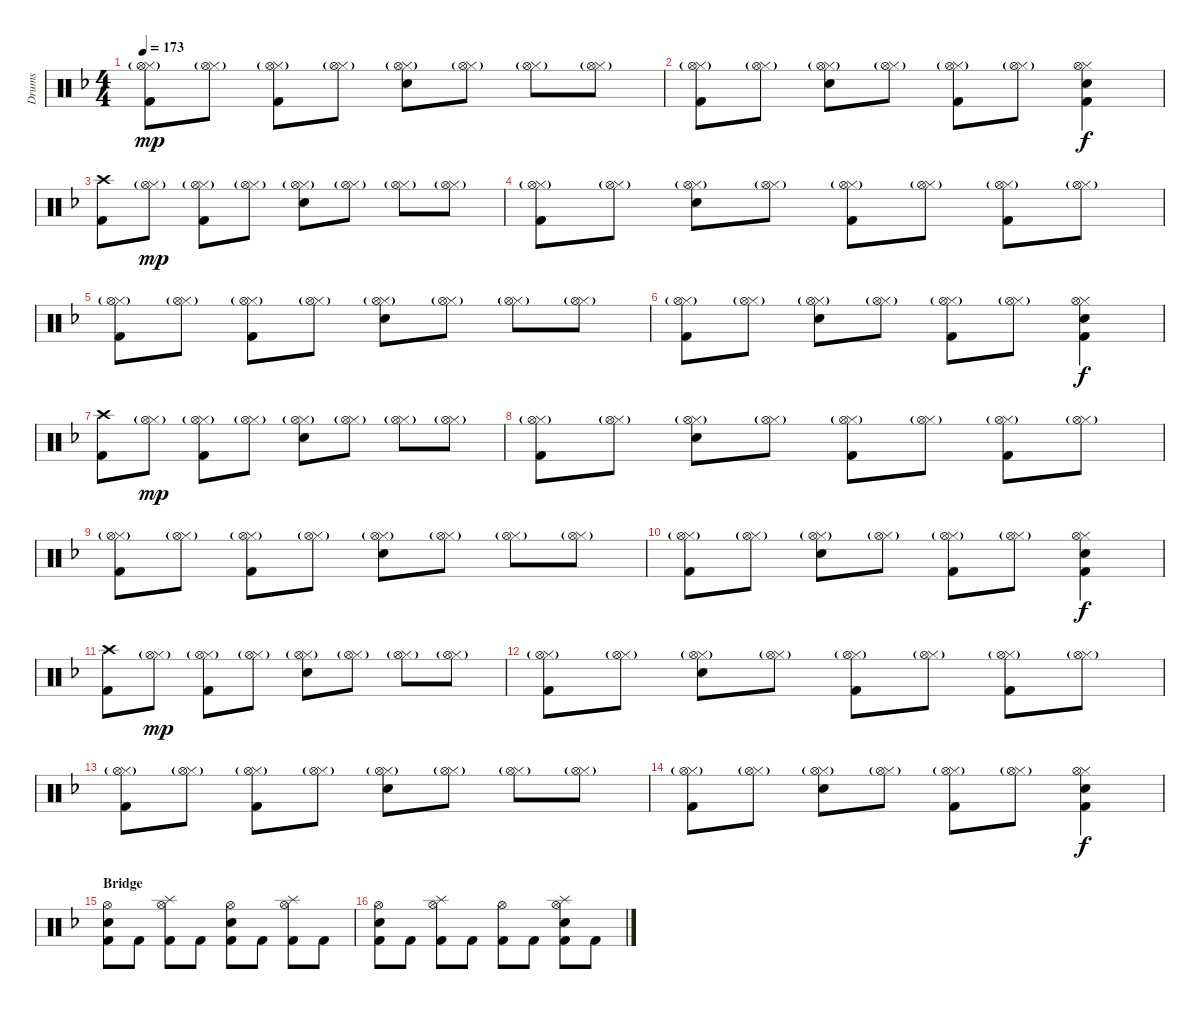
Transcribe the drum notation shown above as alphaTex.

\track ("Drums" "Drums") {instrument percussion}
\staff {score}
\articulation defaults
\ts (4 4)
\tempo 173
\clef neutral
\ks dminor
("Hi-Hat (closed)"{g} "Hi-Hat (open)"{g} "Kick (hit) 2").8{dy mp} ("Hi-Hat (closed)"{g} "Hi-Hat (open)"{g}).8 ("Hi-Hat (closed)"{g} "Hi-Hat (open)"{g} "Kick (hit) 2").8 ("Hi-Hat (closed)"{g} "Hi-Hat (open)"{g}).8 ("Hi-Hat (closed)"{g} "Hi-Hat (open)"{g} "Snare (hit) 2").8 ("Hi-Hat (closed)"{g} "Hi-Hat (open)"{g}).8 ("Hi-Hat (closed)"{g} "Hi-Hat (open)"{g}).8 ("Hi-Hat (closed)"{g} "Hi-Hat (open)"{g}).8 |
("Hi-Hat (closed)"{g} "Hi-Hat (open)"{g} "Kick (hit) 2").8 ("Hi-Hat (closed)"{g} "Hi-Hat (open)"{g}).8 ("Hi-Hat (closed)"{g} "Hi-Hat (open)"{g} "Snare (hit) 2").8 ("Hi-Hat (closed)"{g} "Hi-Hat (open)"{g}).8 ("Hi-Hat (closed)"{g} "Hi-Hat (open)"{g} "Kick (hit) 2").8 ("Hi-Hat (closed)"{g} "Hi-Hat (open)"{g}).8 ("Hi-Hat (closed)" "Hi-Hat (open)" "Snare (hit) 2" "Kick (hit) 2").4{dy f} |
("Crash high (hit)" "Kick (hit) 2").8 ("Hi-Hat (closed)"{g} "Hi-Hat (open)"{g}).8{dy mp} ("Hi-Hat (closed)"{g} "Hi-Hat (open)"{g} "Kick (hit) 2").8 ("Hi-Hat (closed)"{g} "Hi-Hat (open)"{g}).8 ("Hi-Hat (closed)"{g} "Hi-Hat (open)"{g} "Snare (hit) 2").8 ("Hi-Hat (closed)"{g} "Hi-Hat (open)"{g}).8 ("Hi-Hat (closed)"{g} "Hi-Hat (open)"{g}).8 ("Hi-Hat (closed)"{g} "Hi-Hat (open)"{g}).8 |
("Hi-Hat (closed)"{g} "Hi-Hat (open)"{g} "Kick (hit) 2").8 ("Hi-Hat (closed)"{g} "Hi-Hat (open)"{g}).8 ("Hi-Hat (closed)"{g} "Hi-Hat (open)"{g} "Snare (hit) 2").8 ("Hi-Hat (closed)"{g} "Hi-Hat (open)"{g}).8 ("Hi-Hat (closed)"{g} "Hi-Hat (open)"{g} "Kick (hit) 2").8 ("Hi-Hat (closed)"{g} "Hi-Hat (open)"{g}).8 ("Hi-Hat (closed)"{g} "Hi-Hat (open)"{g} "Kick (hit) 2").8 ("Hi-Hat (closed)"{g} "Hi-Hat (open)"{g}).8 |
("Hi-Hat (closed)"{g} "Hi-Hat (open)"{g} "Kick (hit) 2").8 ("Hi-Hat (closed)"{g} "Hi-Hat (open)"{g}).8 ("Hi-Hat (closed)"{g} "Hi-Hat (open)"{g} "Kick (hit) 2").8 ("Hi-Hat (closed)"{g} "Hi-Hat (open)"{g}).8 ("Hi-Hat (closed)"{g} "Hi-Hat (open)"{g} "Snare (hit) 2").8 ("Hi-Hat (closed)"{g} "Hi-Hat (open)"{g}).8 ("Hi-Hat (closed)"{g} "Hi-Hat (open)"{g}).8 ("Hi-Hat (closed)"{g} "Hi-Hat (open)"{g}).8 |
("Hi-Hat (closed)"{g} "Hi-Hat (open)"{g} "Kick (hit) 2").8 ("Hi-Hat (closed)"{g} "Hi-Hat (open)"{g}).8 ("Hi-Hat (closed)"{g} "Hi-Hat (open)"{g} "Snare (hit) 2").8 ("Hi-Hat (closed)"{g} "Hi-Hat (open)"{g}).8 ("Hi-Hat (closed)"{g} "Hi-Hat (open)"{g} "Kick (hit) 2").8 ("Hi-Hat (closed)"{g} "Hi-Hat (open)"{g}).8 ("Hi-Hat (closed)" "Hi-Hat (open)" "Snare (hit) 2" "Kick (hit) 2").4{dy f} |
("Crash high (hit)" "Kick (hit) 2").8 ("Hi-Hat (closed)"{g} "Hi-Hat (open)"{g}).8{dy mp} ("Hi-Hat (closed)"{g} "Hi-Hat (open)"{g} "Kick (hit) 2").8 ("Hi-Hat (closed)"{g} "Hi-Hat (open)"{g}).8 ("Hi-Hat (closed)"{g} "Hi-Hat (open)"{g} "Snare (hit) 2").8 ("Hi-Hat (closed)"{g} "Hi-Hat (open)"{g}).8 ("Hi-Hat (closed)"{g} "Hi-Hat (open)"{g}).8 ("Hi-Hat (closed)"{g} "Hi-Hat (open)"{g}).8 |
("Hi-Hat (closed)"{g} "Hi-Hat (open)"{g} "Kick (hit) 2").8 ("Hi-Hat (closed)"{g} "Hi-Hat (open)"{g}).8 ("Hi-Hat (closed)"{g} "Hi-Hat (open)"{g} "Snare (hit) 2").8 ("Hi-Hat (closed)"{g} "Hi-Hat (open)"{g}).8 ("Hi-Hat (closed)"{g} "Hi-Hat (open)"{g} "Kick (hit) 2").8 ("Hi-Hat (closed)"{g} "Hi-Hat (open)"{g}).8 ("Hi-Hat (closed)"{g} "Hi-Hat (open)"{g} "Kick (hit) 2").8 ("Hi-Hat (closed)"{g} "Hi-Hat (open)"{g}).8 |
("Hi-Hat (closed)"{g} "Hi-Hat (open)"{g} "Kick (hit) 2").8 ("Hi-Hat (closed)"{g} "Hi-Hat (open)"{g}).8 ("Hi-Hat (closed)"{g} "Hi-Hat (open)"{g} "Kick (hit) 2").8 ("Hi-Hat (closed)"{g} "Hi-Hat (open)"{g}).8 ("Hi-Hat (closed)"{g} "Hi-Hat (open)"{g} "Snare (hit) 2").8 ("Hi-Hat (closed)"{g} "Hi-Hat (open)"{g}).8 ("Hi-Hat (closed)"{g} "Hi-Hat (open)"{g}).8 ("Hi-Hat (closed)"{g} "Hi-Hat (open)"{g}).8 |
("Hi-Hat (closed)"{g} "Hi-Hat (open)"{g} "Kick (hit) 2").8 ("Hi-Hat (closed)"{g} "Hi-Hat (open)"{g}).8 ("Hi-Hat (closed)"{g} "Hi-Hat (open)"{g} "Snare (hit) 2").8 ("Hi-Hat (closed)"{g} "Hi-Hat (open)"{g}).8 ("Hi-Hat (closed)"{g} "Hi-Hat (open)"{g} "Kick (hit) 2").8 ("Hi-Hat (closed)"{g} "Hi-Hat (open)"{g}).8 ("Hi-Hat (closed)" "Hi-Hat (open)" "Snare (hit) 2" "Kick (hit) 2").4{dy f} |
("Crash high (hit)" "Kick (hit) 2").8 ("Hi-Hat (closed)"{g} "Hi-Hat (open)"{g}).8{dy mp} ("Hi-Hat (closed)"{g} "Hi-Hat (open)"{g} "Kick (hit) 2").8 ("Hi-Hat (closed)"{g} "Hi-Hat (open)"{g}).8 ("Hi-Hat (closed)"{g} "Hi-Hat (open)"{g} "Snare (hit) 2").8 ("Hi-Hat (closed)"{g} "Hi-Hat (open)"{g}).8 ("Hi-Hat (closed)"{g} "Hi-Hat (open)"{g}).8 ("Hi-Hat (closed)"{g} "Hi-Hat (open)"{g}).8 |
("Hi-Hat (closed)"{g} "Hi-Hat (open)"{g} "Kick (hit) 2").8 ("Hi-Hat (closed)"{g} "Hi-Hat (open)"{g}).8 ("Hi-Hat (closed)"{g} "Hi-Hat (open)"{g} "Snare (hit) 2").8 ("Hi-Hat (closed)"{g} "Hi-Hat (open)"{g}).8 ("Hi-Hat (closed)"{g} "Hi-Hat (open)"{g} "Kick (hit) 2").8 ("Hi-Hat (closed)"{g} "Hi-Hat (open)"{g}).8 ("Hi-Hat (closed)"{g} "Hi-Hat (open)"{g} "Kick (hit) 2").8 ("Hi-Hat (closed)"{g} "Hi-Hat (open)"{g}).8 |
("Hi-Hat (closed)"{g} "Hi-Hat (open)"{g} "Kick (hit) 2").8 ("Hi-Hat (closed)"{g} "Hi-Hat (open)"{g}).8 ("Hi-Hat (closed)"{g} "Hi-Hat (open)"{g} "Kick (hit) 2").8 ("Hi-Hat (closed)"{g} "Hi-Hat (open)"{g}).8 ("Hi-Hat (closed)"{g} "Hi-Hat (open)"{g} "Snare (hit) 2").8 ("Hi-Hat (closed)"{g} "Hi-Hat (open)"{g}).8 ("Hi-Hat (closed)"{g} "Hi-Hat (open)"{g}).8 ("Hi-Hat (closed)"{g} "Hi-Hat (open)"{g}).8 |
("Hi-Hat (closed)"{g} "Hi-Hat (open)"{g} "Kick (hit) 2").8 ("Hi-Hat (closed)"{g} "Hi-Hat (open)"{g}).8 ("Hi-Hat (closed)"{g} "Hi-Hat (open)"{g} "Snare (hit) 2").8 ("Hi-Hat (closed)"{g} "Hi-Hat (open)"{g}).8 ("Hi-Hat (closed)"{g} "Hi-Hat (open)"{g} "Kick (hit) 2").8 ("Hi-Hat (closed)"{g} "Hi-Hat (open)"{g}).8 ("Hi-Hat (closed)" "Hi-Hat (open)" "Snare (hit) 2" "Kick (hit) 2").4{dy f} |
\section ("" "Bridge")
("Hi-Hat (open)" "Snare (hit) 2" "Kick (hit) 2").8 "Kick (hit) 2".8 ("Hi-Hat (open)" "Splash (hit)" "Kick (hit) 2").8 "Kick (hit) 2".8 ("Hi-Hat (open)" "Snare (hit) 2" "Kick (hit) 2").8 "Kick (hit) 2".8 ("Hi-Hat (open)" "Splash (hit)" "Kick (hit) 2").8 "Kick (hit) 2".8 |
("Hi-Hat (open)" "Snare (hit) 2" "Kick (hit) 2").8 "Kick (hit) 2".8 ("Hi-Hat (open)" "Splash (hit)" "Kick (hit) 2").8 "Kick (hit) 2".8 ("Hi-Hat (open)" "Kick (hit) 2").8 "Kick (hit) 2".8 ("Hi-Hat (open)" "Splash (hit)" "Snare (hit) 2" "Kick (hit) 2").8 "Kick (hit) 2".8
